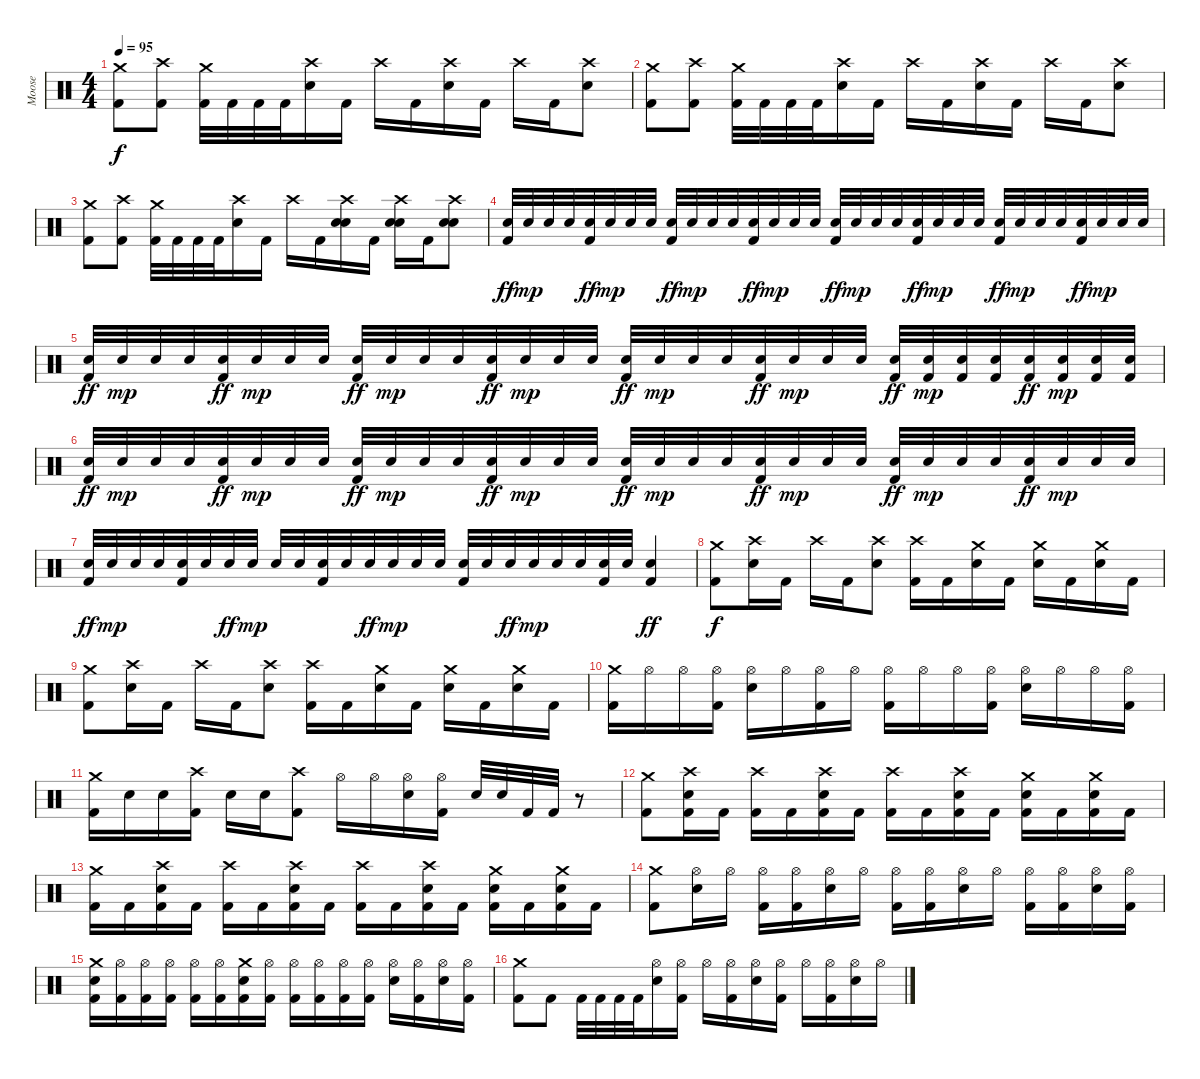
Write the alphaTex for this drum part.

\track ("Moose" "Moose") {instrument percussion}
\staff {score}
\articulation defaults
\ts (4 4)
\tempo 95
\clef neutral
\ks c
("Crash medium (hit)" "Kick (hit) 2").8{dy f} ("Crash high (hit)" "Kick (hit) 2").8 ("Crash medium (hit)" "Kick (hit) 2").32 "Kick (hit) 2".32 "Kick (hit) 2".32 "Kick (hit) 2".32 ("Crash high (hit)" "Electric Snare (hit)").16 "Kick (hit) 2".16 "Crash high (hit)".16 "Kick (hit) 2".16 ("Crash high (hit)" "Electric Snare (hit)").16 "Kick (hit) 2".16 "Crash high (hit)".16 "Kick (hit) 2".16 ("Crash high (hit)" "Electric Snare (hit)").8 |
("Crash medium (hit)" "Kick (hit) 2").8 ("Crash high (hit)" "Kick (hit) 2").8 ("Crash medium (hit)" "Kick (hit) 2").32 "Kick (hit) 2".32 "Kick (hit) 2".32 "Kick (hit) 2".32 ("Crash high (hit)" "Electric Snare (hit)").16 "Kick (hit) 2".16 "Crash high (hit)".16 "Kick (hit) 2".16 ("Crash high (hit)" "Electric Snare (hit)").16 "Kick (hit) 2".16 "Crash high (hit)".16 "Kick (hit) 2".16 ("Crash high (hit)" "Electric Snare (hit)").8 |
("Crash medium (hit)" "Kick (hit) 2").8 ("Crash high (hit)" "Kick (hit) 2").8 ("Crash medium (hit)" "Kick (hit) 2").32 "Kick (hit) 2".32 "Kick (hit) 2".32 "Kick (hit) 2".32 ("Crash high (hit)" "Electric Snare (hit)").16 "Kick (hit) 2".16 "Crash high (hit)".16 "Kick (hit) 2".16 ("Crash high (hit)" "Electric Snare (hit)" "Electric Snare (hit)").16 "Kick (hit) 2".16 ("Crash high (hit)" "Electric Snare (hit)" "Electric Snare (hit)").16 "Kick (hit) 2".16 ("Crash high (hit)" "Electric Snare (hit)" "Electric Snare (hit)").8 |
("Electric Snare (hit)" "Kick (hit) 2").32{dy ff} "Electric Snare (hit)".32{dy mp} "Electric Snare (hit)".32 "Electric Snare (hit)".32 ("Electric Snare (hit)" "Kick (hit) 2").32{dy ff} "Electric Snare (hit)".32{dy mp} "Electric Snare (hit)".32 "Electric Snare (hit)".32 ("Electric Snare (hit)" "Kick (hit) 2").32{dy ff} "Electric Snare (hit)".32{dy mp} "Electric Snare (hit)".32 "Electric Snare (hit)".32 ("Electric Snare (hit)" "Kick (hit) 2").32{dy ff} "Electric Snare (hit)".32{dy mp} "Electric Snare (hit)".32 "Electric Snare (hit)".32 ("Electric Snare (hit)" "Kick (hit) 2").32{dy ff} "Electric Snare (hit)".32{dy mp} "Electric Snare (hit)".32 "Electric Snare (hit)".32 ("Electric Snare (hit)" "Kick (hit) 2").32{dy ff} "Electric Snare (hit)".32{dy mp} "Electric Snare (hit)".32 "Electric Snare (hit)".32 ("Electric Snare (hit)" "Kick (hit) 2").32{dy ff} "Electric Snare (hit)".32{dy mp} "Electric Snare (hit)".32 "Electric Snare (hit)".32 ("Electric Snare (hit)" "Kick (hit) 2").32{dy ff} "Electric Snare (hit)".32{dy mp} "Electric Snare (hit)".32 "Electric Snare (hit)".32 |
("Electric Snare (hit)" "Kick (hit) 2").32{dy ff} "Electric Snare (hit)".32{dy mp} "Electric Snare (hit)".32 "Electric Snare (hit)".32 ("Electric Snare (hit)" "Kick (hit) 2").32{dy ff} "Electric Snare (hit)".32{dy mp} "Electric Snare (hit)".32 "Electric Snare (hit)".32 ("Electric Snare (hit)" "Kick (hit) 2").32{dy ff} "Electric Snare (hit)".32{dy mp} "Electric Snare (hit)".32 "Electric Snare (hit)".32 ("Electric Snare (hit)" "Kick (hit) 2").32{dy ff} "Electric Snare (hit)".32{dy mp} "Electric Snare (hit)".32 "Electric Snare (hit)".32 ("Electric Snare (hit)" "Kick (hit) 2").32{dy ff} "Electric Snare (hit)".32{dy mp} "Electric Snare (hit)".32 "Electric Snare (hit)".32 ("Electric Snare (hit)" "Kick (hit) 2").32{dy ff} "Electric Snare (hit)".32{dy mp} "Electric Snare (hit)".32 "Electric Snare (hit)".32 ("Electric Snare (hit)" "Kick (hit) 2").32{dy ff} ("Electric Snare (hit)" "Kick (hit) 2").32{dy mp} ("Electric Snare (hit)" "Kick (hit) 2").32 ("Electric Snare (hit)" "Kick (hit) 2").32 ("Electric Snare (hit)" "Kick (hit) 2").32{dy ff} ("Electric Snare (hit)" "Kick (hit) 2").32{dy mp} ("Electric Snare (hit)" "Kick (hit) 2").32 ("Electric Snare (hit)" "Kick (hit) 2").32 |
("Electric Snare (hit)" "Kick (hit) 2").32{dy ff} "Electric Snare (hit)".32{dy mp} "Electric Snare (hit)".32 "Electric Snare (hit)".32 ("Electric Snare (hit)" "Kick (hit) 2").32{dy ff} "Electric Snare (hit)".32{dy mp} "Electric Snare (hit)".32 "Electric Snare (hit)".32 ("Electric Snare (hit)" "Kick (hit) 2").32{dy ff} "Electric Snare (hit)".32{dy mp} "Electric Snare (hit)".32 "Electric Snare (hit)".32 ("Electric Snare (hit)" "Kick (hit) 2").32{dy ff} "Electric Snare (hit)".32{dy mp} "Electric Snare (hit)".32 "Electric Snare (hit)".32 ("Electric Snare (hit)" "Kick (hit) 2").32{dy ff} "Electric Snare (hit)".32{dy mp} "Electric Snare (hit)".32 "Electric Snare (hit)".32 ("Electric Snare (hit)" "Kick (hit) 2").32{dy ff} "Electric Snare (hit)".32{dy mp} "Electric Snare (hit)".32 "Electric Snare (hit)".32 ("Electric Snare (hit)" "Kick (hit) 2").32{dy ff} "Electric Snare (hit)".32{dy mp} "Electric Snare (hit)".32 "Electric Snare (hit)".32 ("Electric Snare (hit)" "Kick (hit) 2").32{dy ff} "Electric Snare (hit)".32{dy mp} "Electric Snare (hit)".32 "Electric Snare (hit)".32 |
("Electric Snare (hit)" "Kick (hit) 2").32{dy ff} "Electric Snare (hit)".32{dy mp} "Electric Snare (hit)".32 "Electric Snare (hit)".32 ("Electric Snare (hit)" "Kick (hit) 2").32 "Electric Snare (hit)".32 "Electric Snare (hit)".32{dy ff} "Electric Snare (hit)".32{dy mp} "Electric Snare (hit)".32 "Electric Snare (hit)".32 ("Electric Snare (hit)" "Kick (hit) 2").32 "Electric Snare (hit)".32 "Electric Snare (hit)".32{dy ff} "Electric Snare (hit)".32{dy mp} "Electric Snare (hit)".32 "Electric Snare (hit)".32 ("Electric Snare (hit)" "Kick (hit) 2").32 "Electric Snare (hit)".32 "Electric Snare (hit)".32{dy ff} "Electric Snare (hit)".32{dy mp} "Electric Snare (hit)".32 "Electric Snare (hit)".32 ("Electric Snare (hit)" "Kick (hit) 2").32 "Electric Snare (hit)".32 ("Electric Snare (hit)" "Kick (hit) 2").4{dy ff} |
("Crash medium (hit)" "Kick (hit) 2").8{dy f} ("Crash high (hit)" "Electric Snare (hit)").16 "Kick (hit) 2".16 "Crash high (hit)".16 "Kick (hit) 2".16 ("Crash high (hit)" "Electric Snare (hit)").8 ("Crash high (hit)" "Kick (hit) 2").16 "Kick (hit) 2".16 ("Crash medium (hit)" "Electric Snare (hit)").16 "Kick (hit) 2".16 ("Crash medium (hit)" "Electric Snare (hit)").16 "Kick (hit) 2".16 ("Crash medium (hit)" "Electric Snare (hit)").16 "Kick (hit) 2".16 |
("Crash medium (hit)" "Kick (hit) 2").8 ("Crash high (hit)" "Electric Snare (hit)").16 "Kick (hit) 2".16 "Crash high (hit)".16 "Kick (hit) 2".16 ("Crash high (hit)" "Electric Snare (hit)").8 ("Crash high (hit)" "Kick (hit) 2").16 "Kick (hit) 2".16 ("Crash medium (hit)" "Electric Snare (hit)").16 "Kick (hit) 2".16 ("Crash medium (hit)" "Electric Snare (hit)").16 "Kick (hit) 2".16 ("Crash medium (hit)" "Electric Snare (hit)").16 "Kick (hit) 2".16 |
("Crash medium (hit)" "Kick (hit) 2").16 "Hi-Hat (open)".16 "Hi-Hat (open)".16 ("Hi-Hat (open)" "Kick (hit) 2").16 ("Hi-Hat (open)" "Electric Snare (hit)").16 "Hi-Hat (open)".16 ("Hi-Hat (open)" "Kick (hit) 2").16 "Hi-Hat (open)".16 ("Hi-Hat (open)" "Kick (hit) 2").16 "Hi-Hat (open)".16 "Hi-Hat (open)".16 ("Hi-Hat (open)" "Kick (hit) 2").16 ("Hi-Hat (open)" "Electric Snare (hit)").16 "Hi-Hat (open)".16 "Hi-Hat (open)".16 ("Hi-Hat (open)" "Kick (hit) 2").16 |
("Crash medium (hit)" "Kick (hit) 2").16 "Electric Snare (hit)".16 "Electric Snare (hit)".16 ("Crash high (hit)" "Kick (hit) 2").16 "Electric Snare (hit)".16 "Electric Snare (hit)".16 ("Crash high (hit)" "Kick (hit) 2").8 "Hi-Hat (open)".16 "Hi-Hat (open)".16 ("Hi-Hat (open)" "Electric Snare (hit)").16 ("Hi-Hat (open)" "Kick (hit) 2").16 "Electric Snare (hit)".32 "Electric Snare (hit)".32 "Kick (hit) 2".32 "Kick (hit) 2".32 r.8 |
("Crash medium (hit)" "Kick (hit) 2").8 ("Crash high (hit)" "Electric Snare (hit)" "Kick (hit) 2").16 "Kick (hit) 2".16 ("Crash high (hit)" "Kick (hit) 2").16 "Kick (hit) 2".16 ("Crash high (hit)" "Electric Snare (hit)" "Kick (hit) 2").16 "Kick (hit) 2".16 ("Crash high (hit)" "Kick (hit) 2").16 "Kick (hit) 2".16 ("Crash high (hit)" "Electric Snare (hit)" "Kick (hit) 2").16 "Kick (hit) 2".16 ("Crash medium (hit)" "Electric Snare (hit)" "Kick (hit) 2").16 "Kick (hit) 2".16 ("Crash medium (hit)" "Electric Snare (hit)" "Kick (hit) 2").16 "Kick (hit) 2".16 |
("Crash medium (hit)" "Kick (hit) 2").16 "Kick (hit) 2".16 ("Crash high (hit)" "Electric Snare (hit)" "Kick (hit) 2").16 "Kick (hit) 2".16 ("Crash high (hit)" "Kick (hit) 2").16 "Kick (hit) 2".16 ("Crash high (hit)" "Electric Snare (hit)" "Kick (hit) 2").16 "Kick (hit) 2".16 ("Crash high (hit)" "Kick (hit) 2").16 "Kick (hit) 2".16 ("Crash high (hit)" "Electric Snare (hit)" "Kick (hit) 2").16 "Kick (hit) 2".16 ("Crash medium (hit)" "Electric Snare (hit)" "Kick (hit) 2").16 "Kick (hit) 2".16 ("Crash medium (hit)" "Electric Snare (hit)" "Kick (hit) 2").16 "Kick (hit) 2".16 |
("Crash medium (hit)" "Kick (hit) 2").8 ("Hi-Hat (open)" "Electric Snare (hit)").16 "Hi-Hat (open)".16 ("Hi-Hat (open)" "Kick (hit) 2").16 ("Hi-Hat (open)" "Kick (hit) 2").16 ("Hi-Hat (open)" "Electric Snare (hit)").16 "Hi-Hat (open)".16 ("Hi-Hat (open)" "Kick (hit) 2").16 ("Hi-Hat (open)" "Kick (hit) 2").16 ("Hi-Hat (open)" "Electric Snare (hit)").16 "Hi-Hat (open)".16 ("Hi-Hat (open)" "Kick (hit) 2").16 ("Hi-Hat (open)" "Kick (hit) 2").16 ("Hi-Hat (open)" "Electric Snare (hit)").16 ("Hi-Hat (open)" "Kick (hit) 2").16 |
("Crash medium (hit)" "Electric Snare (hit)" "Kick (hit) 2").16 ("Hi-Hat (open)" "Kick (hit) 2").16 ("Hi-Hat (open)" "Kick (hit) 2").16 ("Hi-Hat (open)" "Kick (hit) 2").16 ("Hi-Hat (open)" "Kick (hit) 2").16 ("Hi-Hat (open)" "Kick (hit) 2").16 ("Crash medium (hit)" "Electric Snare (hit)" "Kick (hit) 2").16 ("Hi-Hat (open)" "Kick (hit) 2").16 ("Hi-Hat (open)" "Kick (hit) 2").16 ("Hi-Hat (open)" "Kick (hit) 2").16 ("Hi-Hat (open)" "Kick (hit) 2").16 ("Hi-Hat (open)" "Kick (hit) 2").16 ("Hi-Hat (open)" "Electric Snare (hit)").16 ("Hi-Hat (open)" "Kick (hit) 2").16 ("Hi-Hat (open)" "Electric Snare (hit)").16 ("Hi-Hat (open)" "Kick (hit) 2").16 |
("Crash medium (hit)" "Kick (hit) 2").8 "Kick (hit) 2".8 "Kick (hit) 2".32 "Kick (hit) 2".32 "Kick (hit) 2".32 "Kick (hit) 2".32 ("Hi-Hat (open)" "Electric Snare (hit)").16 ("Hi-Hat (open)" "Kick (hit) 2").16 "Hi-Hat (open)".16 ("Hi-Hat (open)" "Kick (hit) 2").16 ("Hi-Hat (open)" "Electric Snare (hit)").16 ("Hi-Hat (open)" "Kick (hit) 2").16 "Hi-Hat (open)".16 ("Hi-Hat (open)" "Kick (hit) 2").16 ("Hi-Hat (open)" "Electric Snare (hit)").16 "Hi-Hat (open)".16
